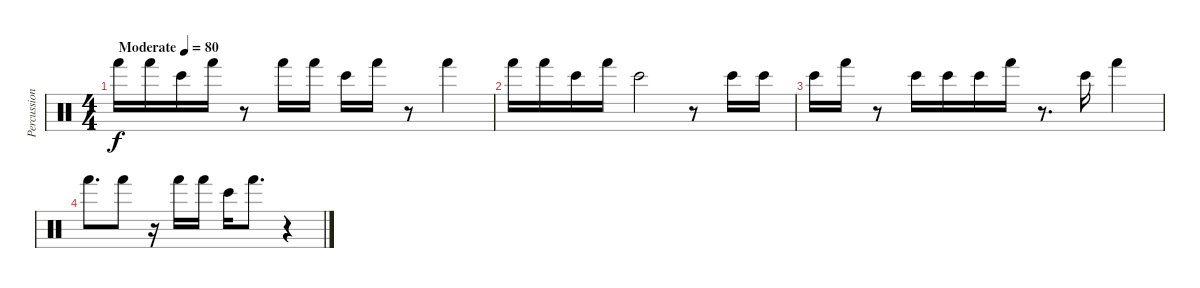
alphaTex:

\track ("Percussion" "Percussion") {instrument percussion}
\staff {score}
\articulation defaults
\ts (4 4)
\tempo (80 "Moderate")
\clef neutral
\ks c "Hand (hit)".16{dy f} "Hand (hit)".16 "Bongo High (hit)".16 "Hand (hit)".16
r.8 "Hand (hit)".16 "Hand (hit)".16 "Bongo High (hit)".16 "Hand (hit)".16 r.8 "Hand (hit)".4 |
"Hand (hit)".16 "Hand (hit)".16 "Bongo High (hit)".16 "Hand (hit)".16 "Bongo High (hit)".2 r.8 "Bongo High (hit)".16 "Bongo High (hit)".16 |
"Bongo High (hit)".16 "Hand (hit)".16 r.8 "Bongo High (hit)".16 "Bongo High (hit)".16 "Bongo High (hit)".16 "Hand (hit)".16 r.8{d} "Bongo High (hit)".16 "Hand (hit)".4 |
"Hand (hit)".8{d} "Hand (hit)".8 r.16 "Hand (hit)".16 "Hand (hit)".16 "Bongo High (hit)".16 "Hand (hit)".8{d} r.4
